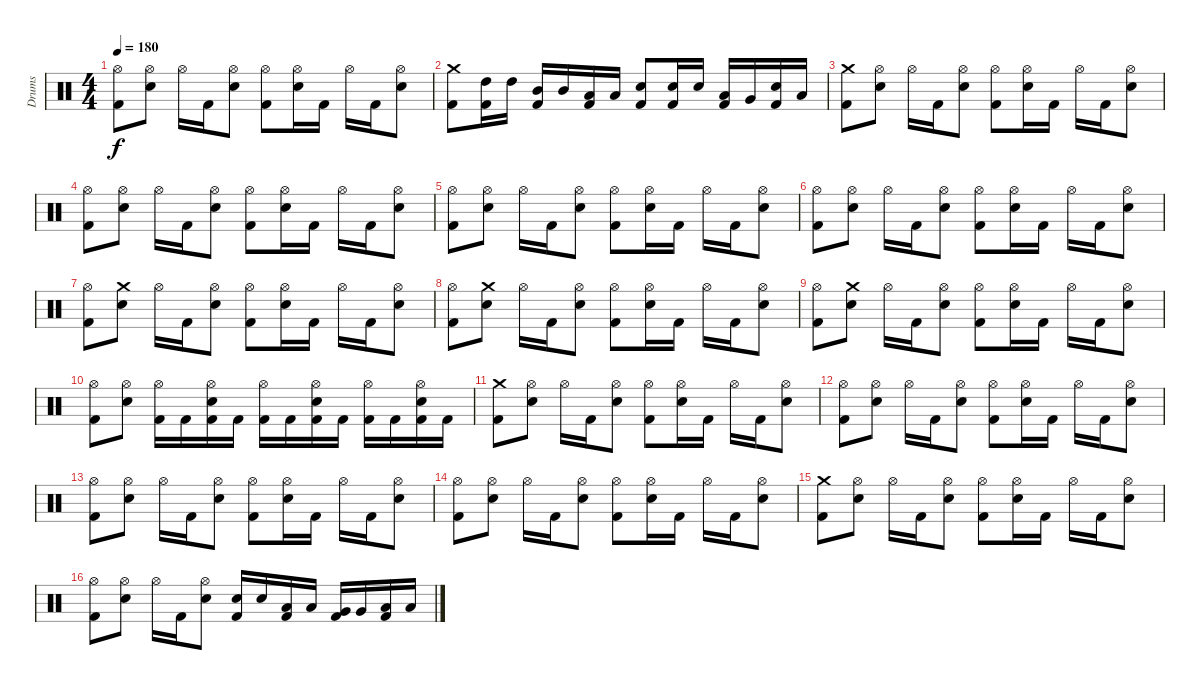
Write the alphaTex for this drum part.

\track ("Drums" "Drums") {instrument percussion}
\staff {score}
\articulation defaults
\ts (4 4)
\tempo 180
\clef neutral
\ks c
("Hi-Hat (open)" "Kick (hit) 2").8{dy f} ("Hi-Hat (open)" "Snare (hit) 2").8 "Hi-Hat (open)".16 "Kick (hit) 2".16 ("Hi-Hat (open)" "Snare (hit) 2").8 ("Hi-Hat (open)" "Kick (hit) 2").8 ("Hi-Hat (open)" "Snare (hit) 2").16 "Kick (hit) 2".16 "Hi-Hat (open)".16 "Kick (hit) 2".16 ("Hi-Hat (open)" "Snare (hit) 2").8 |
("Crash medium (hit)" "Kick (hit) 2").8 ("High Tom (hit)" "Kick (hit) 2").16 "High Tom (hit)".16 ("Mid Tom (hit)" "Kick (hit) 2").16 "Mid Tom (hit)".16 ("Low Tom (hit)" "Kick (hit) 2").16 "Low Tom (hit)".16 ("Snare (hit) 2" "Kick (hit) 2").8 ("Snare (hit) 2" "Kick (hit) 2").16 "Snare (hit) 2".16 ("Low Tom (hit)" "Kick (hit) 2").16 "Very Low Tom (hit)".16 ("Snare (hit) 2" "Kick (hit) 2").16 "Low Floor Tom (hit)".16 |
("Crash medium (hit)" "Kick (hit) 2").8 ("Hi-Hat (open)" "Snare (hit) 2").8 "Hi-Hat (open)".16 "Kick (hit) 2".16 ("Hi-Hat (open)" "Snare (hit) 2").8 ("Hi-Hat (open)" "Kick (hit) 2").8 ("Hi-Hat (open)" "Snare (hit) 2").16 "Kick (hit) 2".16 "Hi-Hat (open)".16 "Kick (hit) 2".16 ("Hi-Hat (open)" "Snare (hit) 2").8 |
("Hi-Hat (open)" "Kick (hit) 2").8 ("Hi-Hat (open)" "Snare (hit) 2").8 "Hi-Hat (open)".16 "Kick (hit) 2".16 ("Hi-Hat (open)" "Snare (hit) 2").8 ("Hi-Hat (open)" "Kick (hit) 2").8 ("Hi-Hat (open)" "Snare (hit) 2").16 "Kick (hit) 2".16 "Hi-Hat (open)".16 "Kick (hit) 2".16 ("Hi-Hat (open)" "Snare (hit) 2").8 |
("Hi-Hat (open)" "Kick (hit) 2").8 ("Hi-Hat (open)" "Snare (hit) 2").8 "Hi-Hat (open)".16 "Kick (hit) 2".16 ("Hi-Hat (open)" "Snare (hit) 2").8 ("Hi-Hat (open)" "Kick (hit) 2").8 ("Hi-Hat (open)" "Snare (hit) 2").16 "Kick (hit) 2".16 "Hi-Hat (open)".16 "Kick (hit) 2".16 ("Hi-Hat (open)" "Snare (hit) 2").8 |
("Hi-Hat (open)" "Kick (hit) 2").8 ("Hi-Hat (open)" "Snare (hit) 2").8 "Hi-Hat (open)".16 "Kick (hit) 2".16 ("Hi-Hat (open)" "Snare (hit) 2").8 ("Hi-Hat (open)" "Kick (hit) 2").8 ("Hi-Hat (open)" "Snare (hit) 2").16 "Kick (hit) 2".16 "Hi-Hat (open)".16 "Kick (hit) 2".16 ("Hi-Hat (open)" "Snare (hit) 2").8 |
("Hi-Hat (open)" "Kick (hit) 2").8 ("Crash medium (hit)" "Snare (hit) 2").8 "Hi-Hat (open)".16 "Kick (hit) 2".16 ("Hi-Hat (open)" "Snare (hit) 2").8 ("Hi-Hat (open)" "Kick (hit) 2").8 ("Hi-Hat (open)" "Snare (hit) 2").16 "Kick (hit) 2".16 "Hi-Hat (open)".16 "Kick (hit) 2".16 ("Hi-Hat (open)" "Snare (hit) 2").8 |
("Hi-Hat (open)" "Kick (hit) 2").8 ("Crash medium (hit)" "Snare (hit) 2").8 "Hi-Hat (open)".16 "Kick (hit) 2".16 ("Hi-Hat (open)" "Snare (hit) 2").8 ("Hi-Hat (open)" "Kick (hit) 2").8 ("Hi-Hat (open)" "Snare (hit) 2").16 "Kick (hit) 2".16 "Hi-Hat (open)".16 "Kick (hit) 2".16 ("Hi-Hat (open)" "Snare (hit) 2").8 |
("Hi-Hat (open)" "Kick (hit) 2").8 ("Crash medium (hit)" "Snare (hit) 2").8 "Hi-Hat (open)".16 "Kick (hit) 2".16 ("Hi-Hat (open)" "Snare (hit) 2").8 ("Hi-Hat (open)" "Kick (hit) 2").8 ("Hi-Hat (open)" "Snare (hit) 2").16 "Kick (hit) 2".16 "Hi-Hat (open)".16 "Kick (hit) 2".16 ("Hi-Hat (open)" "Snare (hit) 2").8 |
("Hi-Hat (open)" "Kick (hit) 2").8 ("Hi-Hat (open)" "Snare (hit) 2").8 ("Hi-Hat (open)" "Kick (hit) 2").16 "Kick (hit) 2".16 ("Hi-Hat (open)" "Snare (hit) 2" "Kick (hit) 2").16 "Kick (hit) 2".16 ("Hi-Hat (open)" "Kick (hit) 2").16 "Kick (hit) 2".16 ("Hi-Hat (open)" "Snare (hit) 2" "Kick (hit) 2").16 "Kick (hit) 2".16 ("Hi-Hat (open)" "Kick (hit) 2").16 "Kick (hit) 2".16 ("Hi-Hat (open)" "Snare (hit) 2" "Kick (hit) 2").16 "Kick (hit) 2".16 |
("Crash medium (hit)" "Kick (hit) 2").8 ("Hi-Hat (open)" "Snare (hit) 2").8 "Hi-Hat (open)".16 "Kick (hit) 2".16 ("Hi-Hat (open)" "Snare (hit) 2").8 ("Hi-Hat (open)" "Kick (hit) 2").8 ("Hi-Hat (open)" "Snare (hit) 2").16 "Kick (hit) 2".16 "Hi-Hat (open)".16 "Kick (hit) 2".16 ("Hi-Hat (open)" "Snare (hit) 2").8 |
("Hi-Hat (open)" "Kick (hit) 2").8 ("Hi-Hat (open)" "Snare (hit) 2").8 "Hi-Hat (open)".16 "Kick (hit) 2".16 ("Hi-Hat (open)" "Snare (hit) 2").8 ("Hi-Hat (open)" "Kick (hit) 2").8 ("Hi-Hat (open)" "Snare (hit) 2").16 "Kick (hit) 2".16 "Hi-Hat (open)".16 "Kick (hit) 2".16 ("Hi-Hat (open)" "Snare (hit) 2").8 |
("Hi-Hat (open)" "Kick (hit) 2").8 ("Hi-Hat (open)" "Snare (hit) 2").8 "Hi-Hat (open)".16 "Kick (hit) 2".16 ("Hi-Hat (open)" "Snare (hit) 2").8 ("Hi-Hat (open)" "Kick (hit) 2").8 ("Hi-Hat (open)" "Snare (hit) 2").16 "Kick (hit) 2".16 "Hi-Hat (open)".16 "Kick (hit) 2".16 ("Hi-Hat (open)" "Snare (hit) 2").8 |
("Hi-Hat (open)" "Kick (hit) 2").8 ("Hi-Hat (open)" "Snare (hit) 2").8 "Hi-Hat (open)".16 "Kick (hit) 2".16 ("Hi-Hat (open)" "Snare (hit) 2").8 ("Hi-Hat (open)" "Kick (hit) 2").8 ("Hi-Hat (open)" "Snare (hit) 2").16 "Kick (hit) 2".16 "Hi-Hat (open)".16 "Kick (hit) 2".16 ("Hi-Hat (open)" "Snare (hit) 2").8 |
("Crash medium (hit)" "Kick (hit) 2").8 ("Hi-Hat (open)" "Snare (hit) 2").8 "Hi-Hat (open)".16 "Kick (hit) 2".16 ("Hi-Hat (open)" "Snare (hit) 2").8 ("Hi-Hat (open)" "Kick (hit) 2").8 ("Hi-Hat (open)" "Snare (hit) 2").16 "Kick (hit) 2".16 "Hi-Hat (open)".16 "Kick (hit) 2".16 ("Hi-Hat (open)" "Snare (hit) 2").8 |
("Hi-Hat (open)" "Kick (hit) 2").8 ("Hi-Hat (open)" "Snare (hit) 2").8 "Hi-Hat (open)".16 "Kick (hit) 2".16 ("Hi-Hat (open)" "Snare (hit) 2").8 ("Snare (hit) 2" "Kick (hit) 2").16 "Snare (hit) 2".16 ("Low Tom (hit)" "Kick (hit) 2").16 "Low Tom (hit)".16 ("Very Low Tom (hit)" "Kick (hit) 2").16 "Very Low Tom (hit)".16 ("Low Floor Tom (hit)" "Kick (hit) 2").16 "Low Floor Tom (hit)".16
